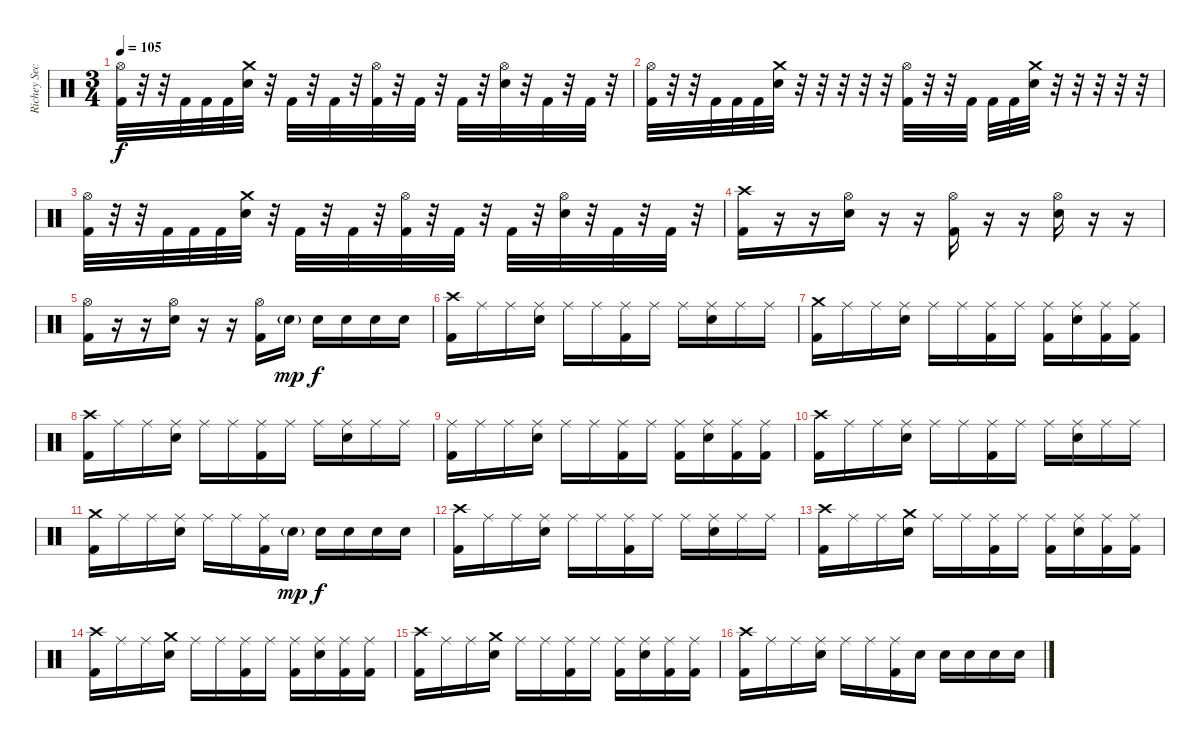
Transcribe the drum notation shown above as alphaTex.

\track ("Richey Secchiri" "Richey Sec") {instrument percussion}
\staff {score}
\articulation defaults
\ts (3 4)
\tempo 105
\clef neutral
\ks c
("Hi-Hat (open)" "Kick (hit) 2").32{dy f} r.32 r.32 "Kick (hit) 2".32 "Kick (hit) 2".32 "Kick (hit) 2".32 ("Crash medium (hit)" "Snare (hit) 2").32 r.32 "Kick (hit) 2".32 r.32 "Kick (hit) 2".32 r.32 ("Hi-Hat (open)" "Kick (hit) 2").32 r.32 "Kick (hit) 2".32 r.32 "Kick (hit) 2".32 r.32 ("Hi-Hat (open)" "Snare (hit) 2").32 r.32 "Kick (hit) 2".32 r.32 "Kick (hit) 2".32 r.32 |
("Hi-Hat (open)" "Kick (hit) 2").32 r.32 r.32 "Kick (hit) 2".32 "Kick (hit) 2".32 "Kick (hit) 2".32 ("Crash medium (hit)" "Snare (hit) 2").32 r.32 r.32 r.32 r.32 r.32 ("Hi-Hat (open)" "Kick (hit) 2").32 r.32 r.32 "Kick (hit) 2".32 "Kick (hit) 2".32 "Kick (hit) 2".32 ("Crash medium (hit)" "Snare (hit) 2").32 r.32 r.32 r.32 r.32 r.32 |
("Hi-Hat (open)" "Kick (hit) 2").32 r.32 r.32 "Kick (hit) 2".32 "Kick (hit) 2".32 "Kick (hit) 2".32 ("Crash medium (hit)" "Snare (hit) 2").32 r.32 "Kick (hit) 2".32 r.32 "Kick (hit) 2".32 r.32 ("Hi-Hat (open)" "Kick (hit) 2").32 r.32 "Kick (hit) 2".32 r.32 "Kick (hit) 2".32 r.32 ("Hi-Hat (open)" "Snare (hit) 2").32 r.32 "Kick (hit) 2".32 r.32 "Kick (hit) 2".32 r.32 |
("Crash high (hit)" "Kick (hit) 2").16 r.16 r.16 ("Hi-Hat (open)" "Snare (hit) 2").16 r.16 r.16 ("Hi-Hat (open)" "Kick (hit) 2").16 r.16 r.16 ("Hi-Hat (open)" "Snare (hit) 2").16 r.16 r.16 |
("Hi-Hat (open)" "Kick (hit) 2").16 r.16 r.16 ("Hi-Hat (open)" "Snare (hit) 2").16 r.16 r.16 ("Hi-Hat (open)" "Kick (hit) 2").16 "Snare (hit) 2"{g}.16{dy mp} "Snare (hit) 2".16{dy f} "Snare (hit) 2".16 "Snare (hit) 2".16 "Snare (hit) 2".16 |
("Crash high (hit)" "Kick (hit) 2").16 "Ride (middle)".16 "Ride (middle)".16 ("Ride (middle)" "Snare (hit) 2").16 "Ride (middle)".16 "Ride (middle)".16 ("Ride (middle)" "Kick (hit) 2").16 "Ride (middle)".16 "Ride (middle)".16 ("Ride (middle)" "Snare (hit) 2").16 "Ride (middle)".16 "Ride (middle)".16 |
("Crash medium (hit)" "Kick (hit) 2").16 "Ride (middle)".16 "Ride (middle)".16 ("Ride (middle)" "Snare (hit) 2").16 "Ride (middle)".16 "Ride (middle)".16 ("Ride (middle)" "Kick (hit) 2").16 "Ride (middle)".16 ("Ride (middle)" "Kick (hit) 2").16 ("Ride (middle)" "Snare (hit) 2").16 ("Ride (middle)" "Kick (hit) 2").16 ("Ride (middle)" "Kick (hit) 2").16 |
("Crash high (hit)" "Kick (hit) 2").16 "Ride (middle)".16 "Ride (middle)".16 ("Ride (middle)" "Snare (hit) 2").16 "Ride (middle)".16 "Ride (middle)".16 ("Ride (middle)" "Kick (hit) 2").16 "Ride (middle)".16 "Ride (middle)".16 ("Ride (middle)" "Snare (hit) 2").16 "Ride (middle)".16 "Ride (middle)".16 |
("Ride (middle)" "Kick (hit) 2").16 "Ride (middle)".16 "Ride (middle)".16 ("Ride (middle)" "Snare (hit) 2").16 "Ride (middle)".16 "Ride (middle)".16 ("Ride (middle)" "Kick (hit) 2").16 "Ride (middle)".16 ("Ride (middle)" "Kick (hit) 2").16 ("Ride (middle)" "Snare (hit) 2").16 ("Ride (middle)" "Kick (hit) 2").16 ("Ride (middle)" "Kick (hit) 2").16 |
("Crash high (hit)" "Kick (hit) 2").16 "Ride (middle)".16 "Ride (middle)".16 ("Ride (middle)" "Snare (hit) 2").16 "Ride (middle)".16 "Ride (middle)".16 ("Ride (middle)" "Kick (hit) 2").16 "Ride (middle)".16 "Ride (middle)".16 ("Ride (middle)" "Snare (hit) 2").16 "Ride (middle)".16 "Ride (middle)".16 |
("Crash medium (hit)" "Kick (hit) 2").16 "Ride (middle)".16 "Ride (middle)".16 ("Ride (middle)" "Snare (hit) 2").16 "Ride (middle)".16 "Ride (middle)".16 ("Ride (middle)" "Kick (hit) 2").16 "Snare (hit) 2"{g}.16{dy mp} "Snare (hit) 2".16{dy f} "Snare (hit) 2".16 "Snare (hit) 2".16 "Snare (hit) 2".16 |
("Crash high (hit)" "Kick (hit) 2").16 "Ride (middle)".16 "Ride (middle)".16 ("Ride (middle)" "Snare (hit) 2").16 "Ride (middle)".16 "Ride (middle)".16 ("Ride (middle)" "Kick (hit) 2").16 "Ride (middle)".16 "Ride (middle)".16 ("Ride (middle)" "Snare (hit) 2").16 "Ride (middle)".16 "Ride (middle)".16 |
("Crash high (hit)" "Kick (hit) 2").16 "Ride (middle)".16 "Ride (middle)".16 ("Crash medium (hit)" "Snare (hit) 2").16 "Ride (middle)".16 "Ride (middle)".16 ("Ride (middle)" "Kick (hit) 2").16 "Ride (middle)".16 ("Ride (middle)" "Kick (hit) 2").16 ("Ride (middle)" "Snare (hit) 2").16 ("Ride (middle)" "Kick (hit) 2").16 ("Ride (middle)" "Kick (hit) 2").16 |
("Crash high (hit)" "Kick (hit) 2").16 "Ride (middle)".16 "Ride (middle)".16 ("Crash medium (hit)" "Snare (hit) 2").16 "Ride (middle)".16 "Ride (middle)".16 ("Ride (middle)" "Kick (hit) 2").16 "Ride (middle)".16 ("Ride (middle)" "Kick (hit) 2").16 ("Ride (middle)" "Snare (hit) 2").16 ("Ride (middle)" "Kick (hit) 2").16 ("Ride (middle)" "Kick (hit) 2").16 |
("Crash high (hit)" "Kick (hit) 2").16 "Ride (middle)".16 "Ride (middle)".16 ("Crash medium (hit)" "Snare (hit) 2").16 "Ride (middle)".16 "Ride (middle)".16 ("Ride (middle)" "Kick (hit) 2").16 "Ride (middle)".16 ("Ride (middle)" "Kick (hit) 2").16 ("Ride (middle)" "Snare (hit) 2").16 ("Ride (middle)" "Kick (hit) 2").16 ("Ride (middle)" "Kick (hit) 2").16 |
("Crash high (hit)" "Kick (hit) 2").16 "Ride (middle)".16 "Ride (middle)".16 ("Ride (middle)" "Snare (hit) 2").16 "Ride (middle)".16 "Ride (middle)".16 ("Ride (middle)" "Kick (hit) 2").16 "Snare (hit) 2".16 "Snare (hit) 2".16 "Snare (hit) 2".16 "Snare (hit) 2".16 "Snare (hit) 2".16
